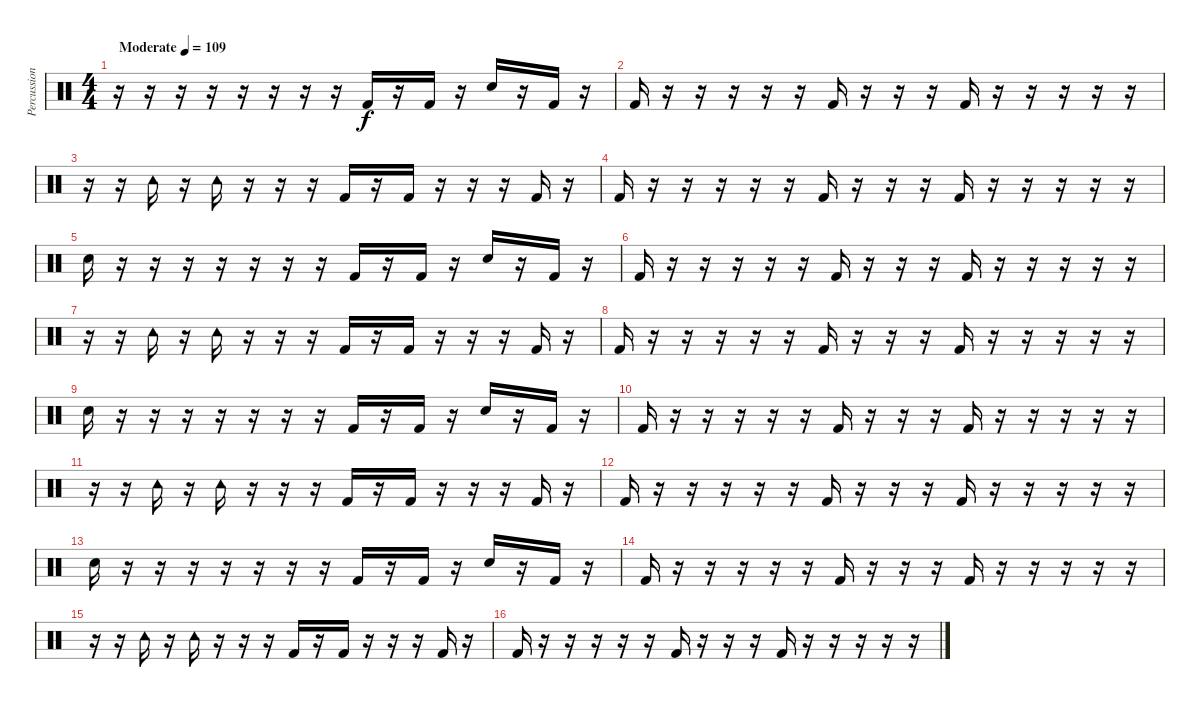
\track ("Percussion" "Percussion") {instrument percussion}
\staff {score}
\articulation defaults
\ts (4 4)
\tempo (109 "Moderate")
\clef neutral
\ks c
r.16{dy f} r.16 r.16 r.16 r.16 r.16 r.16 r.16 "Kick (hit) 2".16 r.16 "Kick (hit) 2".16 r.16 "Electric Snare (hit)".16 r.16 "Kick (hit) 2".16 r.16 |
"Kick (hit) 2".16 r.16 r.16 r.16 r.16 r.16 "Kick (hit) 2".16 r.16 r.16 r.16 "Kick (hit) 2".16 r.16 r.16 r.16 r.16 r.16 |
r.16 r.16 "Tambourine (hit)".16 r.16 "Tambourine (hit)".16 r.16 r.16 r.16 "Kick (hit) 2".16 r.16 "Kick (hit) 2".16 r.16 r.16 r.16 "Kick (hit) 2".16 r.16 |
"Kick (hit) 2".16 r.16 r.16 r.16 r.16 r.16 "Kick (hit) 2".16 r.16 r.16 r.16 "Kick (hit) 2".16 r.16 r.16 r.16 r.16 r.16 |
"Electric Snare (hit)".16 r.16 r.16 r.16 r.16 r.16 r.16 r.16 "Kick (hit) 2".16 r.16 "Kick (hit) 2".16 r.16 "Electric Snare (hit)".16 r.16 "Kick (hit) 2".16 r.16 |
"Kick (hit) 2".16 r.16 r.16 r.16 r.16 r.16 "Kick (hit) 2".16 r.16 r.16 r.16 "Kick (hit) 2".16 r.16 r.16 r.16 r.16 r.16 |
r.16 r.16 "Tambourine (hit)".16 r.16 "Tambourine (hit)".16 r.16 r.16 r.16 "Kick (hit) 2".16 r.16 "Kick (hit) 2".16 r.16 r.16 r.16 "Kick (hit) 2".16 r.16 |
"Kick (hit) 2".16 r.16 r.16 r.16 r.16 r.16 "Kick (hit) 2".16 r.16 r.16 r.16 "Kick (hit) 2".16 r.16 r.16 r.16 r.16 r.16 |
"Electric Snare (hit)".16 r.16 r.16 r.16 r.16 r.16 r.16 r.16 "Kick (hit) 2".16 r.16 "Kick (hit) 2".16 r.16 "Electric Snare (hit)".16 r.16 "Kick (hit) 2".16 r.16 |
"Kick (hit) 2".16 r.16 r.16 r.16 r.16 r.16 "Kick (hit) 2".16 r.16 r.16 r.16 "Kick (hit) 2".16 r.16 r.16 r.16 r.16 r.16 |
r.16 r.16 "Tambourine (hit)".16 r.16 "Tambourine (hit)".16 r.16 r.16 r.16 "Kick (hit) 2".16 r.16 "Kick (hit) 2".16 r.16 r.16 r.16 "Kick (hit) 2".16 r.16 |
"Kick (hit) 2".16 r.16 r.16 r.16 r.16 r.16 "Kick (hit) 2".16 r.16 r.16 r.16 "Kick (hit) 2".16 r.16 r.16 r.16 r.16 r.16 |
"Electric Snare (hit)".16 r.16 r.16 r.16 r.16 r.16 r.16 r.16 "Kick (hit) 2".16 r.16 "Kick (hit) 2".16 r.16 "Electric Snare (hit)".16 r.16 "Kick (hit) 2".16 r.16 |
"Kick (hit) 2".16 r.16 r.16 r.16 r.16 r.16 "Kick (hit) 2".16 r.16 r.16 r.16 "Kick (hit) 2".16 r.16 r.16 r.16 r.16 r.16 |
r.16 r.16 "Tambourine (hit)".16 r.16 "Tambourine (hit)".16 r.16 r.16 r.16 "Kick (hit) 2".16 r.16 "Kick (hit) 2".16 r.16 r.16 r.16 "Kick (hit) 2".16 r.16 |
"Kick (hit) 2".16 r.16 r.16 r.16 r.16 r.16 "Kick (hit) 2".16 r.16 r.16 r.16 "Kick (hit) 2".16 r.16 r.16 r.16 r.16 r.16
